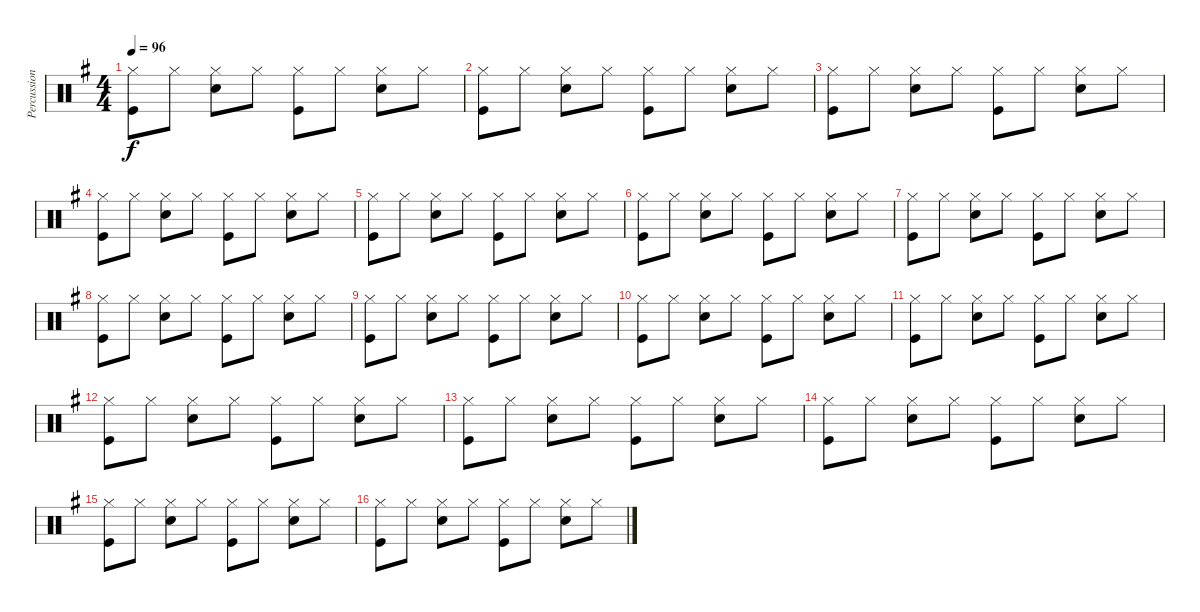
\track ("Percussion" "Percussion") {instrument percussion}
\staff {score}
\articulation defaults
\ts (4 4)
\tempo 96
\clef neutral
\ks g
("Hi-Hat (closed)" "Kick (hit)").8{dy f} "Hi-Hat (closed)".8 ("Hi-Hat (closed)" "Snare (hit) 2").8 "Hi-Hat (closed)".8 ("Hi-Hat (closed)" "Kick (hit)").8 "Hi-Hat (closed)".8 ("Hi-Hat (closed)" "Snare (hit) 2").8 "Hi-Hat (closed)".8 |
("Hi-Hat (closed)" "Kick (hit)").8 "Hi-Hat (closed)".8 ("Hi-Hat (closed)" "Snare (hit) 2").8 "Hi-Hat (closed)".8 ("Hi-Hat (closed)" "Kick (hit)").8 "Hi-Hat (closed)".8 ("Hi-Hat (closed)" "Snare (hit) 2").8 "Hi-Hat (closed)".8 |
("Hi-Hat (closed)" "Kick (hit)").8 "Hi-Hat (closed)".8 ("Hi-Hat (closed)" "Snare (hit) 2").8 "Hi-Hat (closed)".8 ("Hi-Hat (closed)" "Kick (hit)").8 "Hi-Hat (closed)".8 ("Hi-Hat (closed)" "Snare (hit) 2").8 "Hi-Hat (closed)".8 |
("Hi-Hat (closed)" "Kick (hit)").8 "Hi-Hat (closed)".8 ("Hi-Hat (closed)" "Snare (hit) 2").8 "Hi-Hat (closed)".8 ("Hi-Hat (closed)" "Kick (hit)").8 "Hi-Hat (closed)".8 ("Hi-Hat (closed)" "Snare (hit) 2").8 "Hi-Hat (closed)".8 |
("Hi-Hat (closed)" "Kick (hit)").8 "Hi-Hat (closed)".8 ("Hi-Hat (closed)" "Snare (hit) 2").8 "Hi-Hat (closed)".8 ("Hi-Hat (closed)" "Kick (hit)").8 "Hi-Hat (closed)".8 ("Hi-Hat (closed)" "Snare (hit) 2").8 "Hi-Hat (closed)".8 |
("Hi-Hat (closed)" "Kick (hit)").8 "Hi-Hat (closed)".8 ("Hi-Hat (closed)" "Snare (hit) 2").8 "Hi-Hat (closed)".8 ("Hi-Hat (closed)" "Kick (hit)").8 "Hi-Hat (closed)".8 ("Hi-Hat (closed)" "Snare (hit) 2").8 "Hi-Hat (closed)".8 |
("Hi-Hat (closed)" "Kick (hit)").8 "Hi-Hat (closed)".8 ("Hi-Hat (closed)" "Snare (hit) 2").8 "Hi-Hat (closed)".8 ("Hi-Hat (closed)" "Kick (hit)").8 "Hi-Hat (closed)".8 ("Hi-Hat (closed)" "Snare (hit) 2").8 "Hi-Hat (closed)".8 |
("Hi-Hat (closed)" "Kick (hit)").8 "Hi-Hat (closed)".8 ("Hi-Hat (closed)" "Snare (hit) 2").8 "Hi-Hat (closed)".8 ("Hi-Hat (closed)" "Kick (hit)").8 "Hi-Hat (closed)".8 ("Hi-Hat (closed)" "Snare (hit) 2").8 "Hi-Hat (closed)".8 |
("Hi-Hat (closed)" "Kick (hit)").8 "Hi-Hat (closed)".8 ("Hi-Hat (closed)" "Snare (hit) 2").8 "Hi-Hat (closed)".8 ("Hi-Hat (closed)" "Kick (hit)").8 "Hi-Hat (closed)".8 ("Hi-Hat (closed)" "Snare (hit) 2").8 "Hi-Hat (closed)".8 |
("Hi-Hat (closed)" "Kick (hit)").8 "Hi-Hat (closed)".8 ("Hi-Hat (closed)" "Snare (hit) 2").8 "Hi-Hat (closed)".8 ("Hi-Hat (closed)" "Kick (hit)").8 "Hi-Hat (closed)".8 ("Hi-Hat (closed)" "Snare (hit) 2").8 "Hi-Hat (closed)".8 |
("Hi-Hat (closed)" "Kick (hit)").8 "Hi-Hat (closed)".8 ("Hi-Hat (closed)" "Snare (hit) 2").8 "Hi-Hat (closed)".8 ("Hi-Hat (closed)" "Kick (hit)").8 "Hi-Hat (closed)".8 ("Hi-Hat (closed)" "Snare (hit) 2").8 "Hi-Hat (closed)".8 |
("Hi-Hat (closed)" "Kick (hit)").8 "Hi-Hat (closed)".8 ("Hi-Hat (closed)" "Snare (hit) 2").8 "Hi-Hat (closed)".8 ("Hi-Hat (closed)" "Kick (hit)").8 "Hi-Hat (closed)".8 ("Hi-Hat (closed)" "Snare (hit) 2").8 "Hi-Hat (closed)".8 |
("Hi-Hat (closed)" "Kick (hit)").8 "Hi-Hat (closed)".8 ("Hi-Hat (closed)" "Snare (hit) 2").8 "Hi-Hat (closed)".8 ("Hi-Hat (closed)" "Kick (hit)").8 "Hi-Hat (closed)".8 ("Hi-Hat (closed)" "Snare (hit) 2").8 "Hi-Hat (closed)".8 |
("Hi-Hat (closed)" "Kick (hit)").8 "Hi-Hat (closed)".8 ("Hi-Hat (closed)" "Snare (hit) 2").8 "Hi-Hat (closed)".8 ("Hi-Hat (closed)" "Kick (hit)").8 "Hi-Hat (closed)".8 ("Hi-Hat (closed)" "Snare (hit) 2").8 "Hi-Hat (closed)".8 |
("Hi-Hat (closed)" "Kick (hit)").8 "Hi-Hat (closed)".8 ("Hi-Hat (closed)" "Snare (hit) 2").8 "Hi-Hat (closed)".8 ("Hi-Hat (closed)" "Kick (hit)").8 "Hi-Hat (closed)".8 ("Hi-Hat (closed)" "Snare (hit) 2").8 "Hi-Hat (closed)".8 |
("Hi-Hat (closed)" "Kick (hit)").8 "Hi-Hat (closed)".8 ("Hi-Hat (closed)" "Snare (hit) 2").8 "Hi-Hat (closed)".8 ("Hi-Hat (closed)" "Kick (hit)").8 "Hi-Hat (closed)".8 ("Hi-Hat (closed)" "Snare (hit) 2").8 "Hi-Hat (closed)".8
